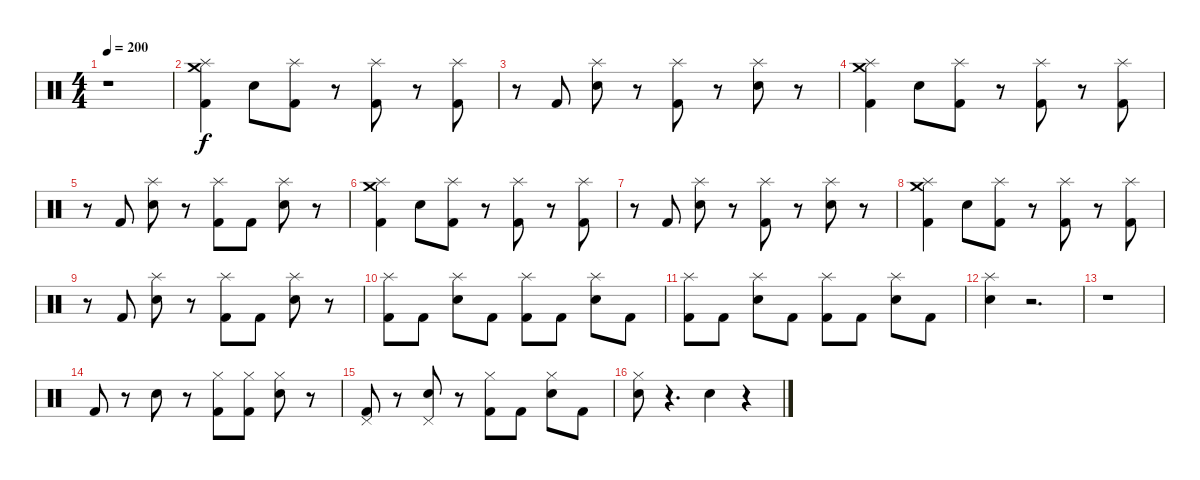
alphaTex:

\track "" {instrument percussion}
\staff {score}
\articulation defaults
\ts (4 4)
\tempo 200
\clef neutral
\ks c
r.1{dy f} |
("Splash (hit)" "Crash medium (hit)" "Kick (hit) 2").4 "Electric Snare (hit)".8 ("Splash (hit)" "Kick (hit) 2").8 r.8 ("Splash (hit)" "Kick (hit) 2").8 r.8 ("Splash (hit)" "Kick (hit) 2").8 |
r.8 "Kick (hit) 2".8 ("Splash (hit)" "Electric Snare (hit)").8 r.8 ("Splash (hit)" "Kick (hit) 2").8 r.8 ("Splash (hit)" "Electric Snare (hit)").8 r.8 |
("Splash (hit)" "Crash medium (hit)" "Kick (hit) 2").4 "Electric Snare (hit)".8 ("Splash (hit)" "Kick (hit) 2").8 r.8 ("Splash (hit)" "Kick (hit) 2").8 r.8 ("Splash (hit)" "Kick (hit) 2").8 |
r.8 "Kick (hit) 2".8 ("Splash (hit)" "Electric Snare (hit)").8 r.8 ("Splash (hit)" "Kick (hit) 2").8 "Kick (hit) 2".8 ("Splash (hit)" "Electric Snare (hit)").8 r.8 |
("Splash (hit)" "Crash medium (hit)" "Kick (hit) 2").4 "Electric Snare (hit)".8 ("Splash (hit)" "Kick (hit) 2").8 r.8 ("Splash (hit)" "Kick (hit) 2").8 r.8 ("Splash (hit)" "Kick (hit) 2").8 |
r.8 "Kick (hit) 2".8 ("Splash (hit)" "Electric Snare (hit)").8 r.8 ("Splash (hit)" "Kick (hit) 2").8 r.8 ("Splash (hit)" "Electric Snare (hit)").8 r.8 |
("Splash (hit)" "Crash medium (hit)" "Kick (hit) 2").4 "Electric Snare (hit)".8 ("Splash (hit)" "Kick (hit) 2").8 r.8 ("Splash (hit)" "Kick (hit) 2").8 r.8 ("Splash (hit)" "Kick (hit) 2").8 |
r.8 "Kick (hit) 2".8 ("Splash (hit)" "Electric Snare (hit)").8 r.8 ("Splash (hit)" "Kick (hit) 2").8 "Kick (hit) 2".8 ("Splash (hit)" "Electric Snare (hit)").8 r.8 |
("Splash (hit)" "Kick (hit) 2").8 "Kick (hit) 2".8 ("Splash (hit)" "Electric Snare (hit)").8 "Kick (hit) 2".8 ("Splash (hit)" "Kick (hit) 2").8 "Kick (hit) 2".8 ("Splash (hit)" "Electric Snare (hit)").8 "Kick (hit) 2".8 |
("Splash (hit)" "Kick (hit) 2").8 "Kick (hit) 2".8 ("Splash (hit)" "Electric Snare (hit)").8 "Kick (hit) 2".8 ("Splash (hit)" "Kick (hit) 2").8 "Kick (hit) 2".8 ("Splash (hit)" "Electric Snare (hit)").8 "Kick (hit) 2".8 |
("Splash (hit)" "Electric Snare (hit)").4 r.2{d} |
r.1 |
"Kick (hit) 2".8 r.8 "Electric Snare (hit)".8 r.8 ("Hi-Hat (closed)" "Kick (hit) 2").8 ("Hi-Hat (closed)" "Kick (hit) 2").8 ("Hi-Hat (closed)" "Electric Snare (hit)").8 r.8 |
("Pedal Hi-Hat (hit)" "Kick (hit) 2").8 r.8 ("Pedal Hi-Hat (hit)" "Electric Snare (hit)").8 r.8 ("Hi-Hat (closed)" "Kick (hit) 2").8 "Kick (hit) 2".8 ("Hi-Hat (closed)" "Electric Snare (hit)").8 "Kick (hit) 2".8 |
("Hi-Hat (closed)" "Electric Snare (hit)").8 r.4{d} "Electric Snare (hit)".4 r.4
